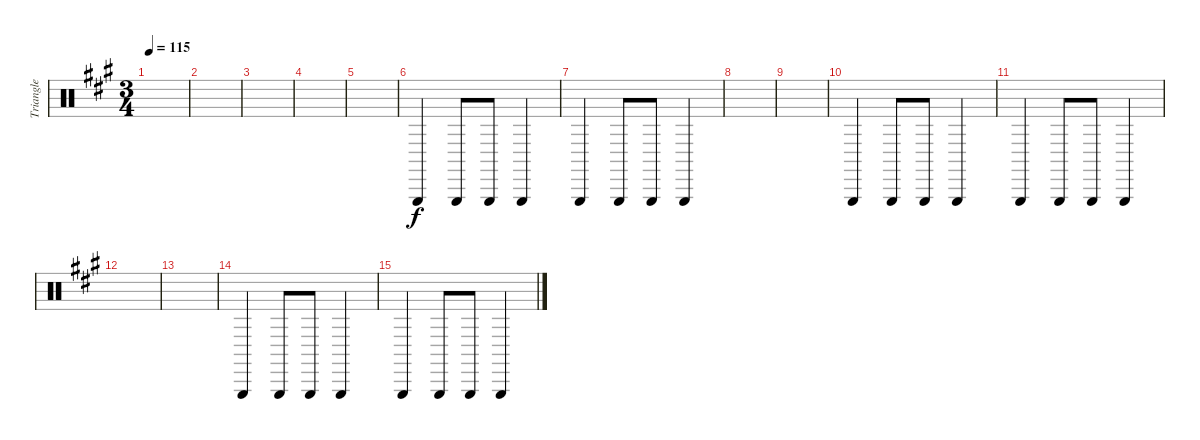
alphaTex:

\track ("Triangle" "Triangle") {instrument percussion}
\staff {score}
\articulation defaults
\ts (3 4)
\tempo 115
\clef neutral
\ks a
|
|
|
|
|
"Triangle (hit)".4 "Triangle (hit)".8 "Triangle (hit)".8 "Triangle (hit)".4 |
"Triangle (hit)".4 "Triangle (hit)".8 "Triangle (hit)".8 "Triangle (hit)".4 |
|
|
"Triangle (hit)".4 "Triangle (hit)".8 "Triangle (hit)".8 "Triangle (hit)".4 |
"Triangle (hit)".4 "Triangle (hit)".8 "Triangle (hit)".8 "Triangle (hit)".4 |
|
|
"Triangle (hit)".4 "Triangle (hit)".8 "Triangle (hit)".8 "Triangle (hit)".4 |
"Triangle (hit)".4 "Triangle (hit)".8 "Triangle (hit)".8 "Triangle (hit)".4
